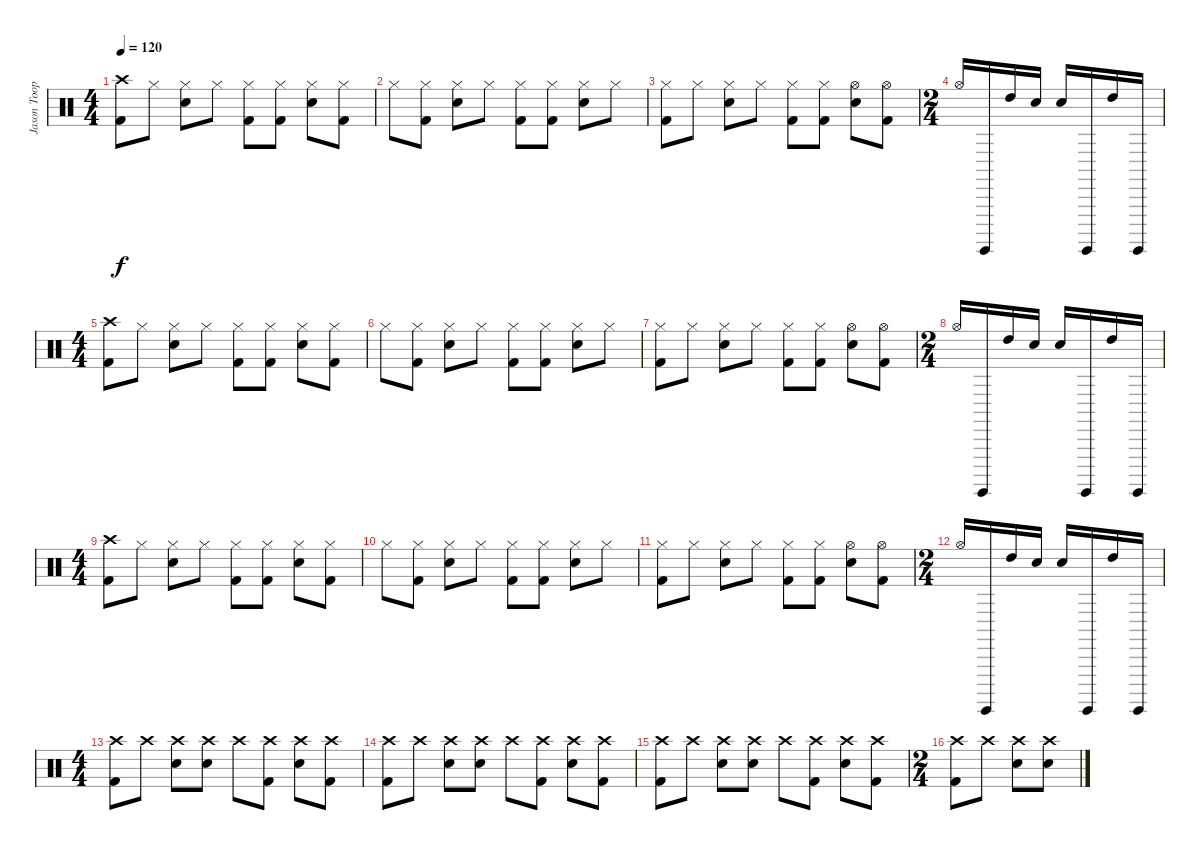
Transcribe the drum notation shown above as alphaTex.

\track ("Jason Toop Cooper" "Jason Toop") {instrument percussion}
\staff {score}
\articulation defaults
\ts (4 4)
\tempo 120
\clef neutral
\ks c
("Crash high (hit)" "Kick (hit) 2").8{dy f} "Hi-Hat (closed)".8 ("Hi-Hat (closed)" "Electric Snare (hit)").8 "Hi-Hat (closed)".8 ("Hi-Hat (closed)" "Kick (hit) 2").8 ("Hi-Hat (closed)" "Kick (hit) 2").8 ("Hi-Hat (closed)" "Electric Snare (hit)").8 ("Hi-Hat (closed)" "Kick (hit) 2").8 |
"Hi-Hat (closed)".8 ("Hi-Hat (closed)" "Kick (hit) 2").8 ("Hi-Hat (closed)" "Electric Snare (hit)").8 "Hi-Hat (closed)".8 ("Hi-Hat (closed)" "Kick (hit) 2").8 ("Hi-Hat (closed)" "Kick (hit) 2").8 ("Hi-Hat (closed)" "Electric Snare (hit)").8 "Hi-Hat (closed)".8 |
("Hi-Hat (closed)" "Kick (hit) 2").8 "Hi-Hat (closed)".8 ("Hi-Hat (closed)" "Electric Snare (hit)").8 "Hi-Hat (closed)".8 ("Hi-Hat (closed)" "Kick (hit) 2").8 ("Hi-Hat (closed)" "Kick (hit) 2").8 ("Hi-Hat (open)" "Electric Snare (hit)").8 ("Hi-Hat (open)" "Kick (hit) 2").8 |
\ts (2 4)
"Hi-Hat (open)".16 "Surdo (hit)".16 "High Tom (hit)".16 "Electric Snare (hit)".16 "Electric Snare (hit)".16 "Surdo (hit)".16 "High Tom (hit)".16 "Surdo (hit)".16 |
\ts (4 4)
("Crash high (hit)" "Kick (hit) 2").8 "Hi-Hat (closed)".8 ("Hi-Hat (closed)" "Electric Snare (hit)").8 "Hi-Hat (closed)".8 ("Hi-Hat (closed)" "Kick (hit) 2").8 ("Hi-Hat (closed)" "Kick (hit) 2").8 ("Hi-Hat (closed)" "Electric Snare (hit)").8 ("Hi-Hat (closed)" "Kick (hit) 2").8 |
"Hi-Hat (closed)".8 ("Hi-Hat (closed)" "Kick (hit) 2").8 ("Hi-Hat (closed)" "Electric Snare (hit)").8 "Hi-Hat (closed)".8 ("Hi-Hat (closed)" "Kick (hit) 2").8 ("Hi-Hat (closed)" "Kick (hit) 2").8 ("Hi-Hat (closed)" "Electric Snare (hit)").8 "Hi-Hat (closed)".8 |
("Hi-Hat (closed)" "Kick (hit) 2").8 "Hi-Hat (closed)".8 ("Hi-Hat (closed)" "Electric Snare (hit)").8 "Hi-Hat (closed)".8 ("Hi-Hat (closed)" "Kick (hit) 2").8 ("Hi-Hat (closed)" "Kick (hit) 2").8 ("Hi-Hat (open)" "Electric Snare (hit)").8 ("Hi-Hat (open)" "Kick (hit) 2").8 |
\ts (2 4)
"Hi-Hat (open)".16 "Surdo (hit)".16 "High Tom (hit)".16 "Electric Snare (hit)".16 "Electric Snare (hit)".16 "Surdo (hit)".16 "High Tom (hit)".16 "Surdo (hit)".16 |
\ts (4 4)
("Crash high (hit)" "Kick (hit) 2").8 "Hi-Hat (closed)".8 ("Hi-Hat (closed)" "Electric Snare (hit)").8 "Hi-Hat (closed)".8 ("Hi-Hat (closed)" "Kick (hit) 2").8 ("Hi-Hat (closed)" "Kick (hit) 2").8 ("Hi-Hat (closed)" "Electric Snare (hit)").8 ("Hi-Hat (closed)" "Kick (hit) 2").8 |
"Hi-Hat (closed)".8 ("Hi-Hat (closed)" "Kick (hit) 2").8 ("Hi-Hat (closed)" "Electric Snare (hit)").8 "Hi-Hat (closed)".8 ("Hi-Hat (closed)" "Kick (hit) 2").8 ("Hi-Hat (closed)" "Kick (hit) 2").8 ("Hi-Hat (closed)" "Electric Snare (hit)").8 "Hi-Hat (closed)".8 |
("Hi-Hat (closed)" "Kick (hit) 2").8 "Hi-Hat (closed)".8 ("Hi-Hat (closed)" "Electric Snare (hit)").8 "Hi-Hat (closed)".8 ("Hi-Hat (closed)" "Kick (hit) 2").8 ("Hi-Hat (closed)" "Kick (hit) 2").8 ("Hi-Hat (open)" "Electric Snare (hit)").8 ("Hi-Hat (open)" "Kick (hit) 2").8 |
\ts (2 4)
"Hi-Hat (open)".16 "Surdo (hit)".16 "High Tom (hit)".16 "Electric Snare (hit)".16 "Electric Snare (hit)".16 "Surdo (hit)".16 "High Tom (hit)".16 "Surdo (hit)".16 |
\ts (4 4)
("Crash high (hit)" "Kick (hit) 2").8 "Crash high (hit)".8 ("Crash high (hit)" "Electric Snare (hit)").8 ("Crash high (hit)" "Electric Snare (hit)").8 "Crash high (hit)".8 ("Crash high (hit)" "Kick (hit) 2").8 ("Crash high (hit)" "Electric Snare (hit)").8 ("Crash high (hit)" "Kick (hit) 2").8 |
("Crash high (hit)" "Kick (hit) 2").8 "Crash high (hit)".8 ("Crash high (hit)" "Electric Snare (hit)").8 ("Crash high (hit)" "Electric Snare (hit)").8 "Crash high (hit)".8 ("Crash high (hit)" "Kick (hit) 2").8 ("Crash high (hit)" "Electric Snare (hit)").8 ("Crash high (hit)" "Kick (hit) 2").8 |
("Crash high (hit)" "Kick (hit) 2").8 "Crash high (hit)".8 ("Crash high (hit)" "Electric Snare (hit)").8 ("Crash high (hit)" "Electric Snare (hit)").8 "Crash high (hit)".8 ("Crash high (hit)" "Kick (hit) 2").8 ("Crash high (hit)" "Electric Snare (hit)").8 ("Crash high (hit)" "Kick (hit) 2").8 |
\ts (2 4)
("Crash high (hit)" "Kick (hit) 2").8 "Crash high (hit)".8 ("Crash high (hit)" "Electric Snare (hit)").8 ("Crash high (hit)" "Electric Snare (hit)").8
